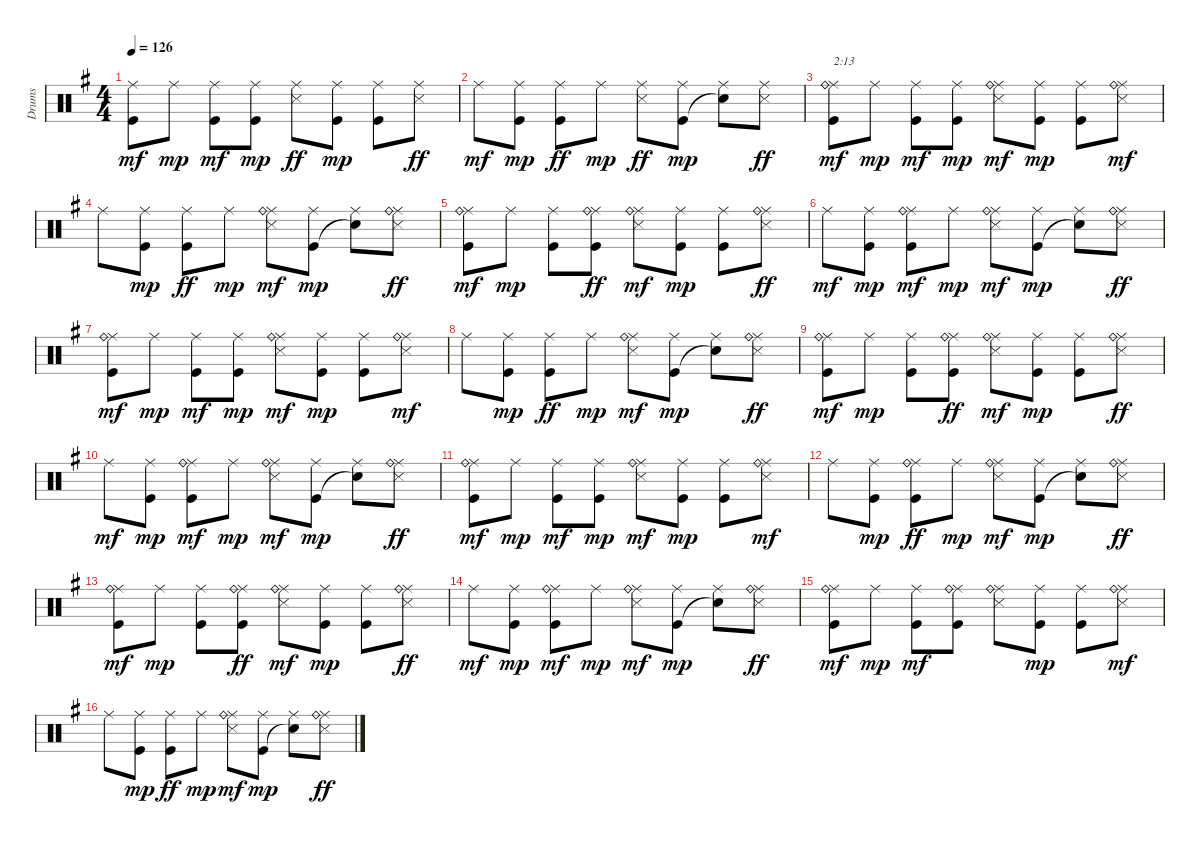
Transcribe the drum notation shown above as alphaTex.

\track ("Drums" "Drums") {instrument percussion}
\staff {score}
\articulation defaults
\ts (4 4)
\tempo 126
\clef neutral
\ks g
("Ride (middle)" "Kick (hit)").8{dy mf} "Ride (middle)".8{dy mp} ("Ride (middle)" "Kick (hit)").8{dy mf} ("Ride (middle)" "Kick (hit)").8{dy mp} ("Ride (middle)" "Snare (side stick) 3").8{dy ff} ("Ride (middle)" "Kick (hit)").8{dy mp} ("Ride (middle)" "Kick (hit)").8 ("Ride (middle)" "Snare (side stick) 3").8{dy ff} |
"Ride (middle)".8{dy mf} ("Ride (middle)" "Kick (hit)").8{dy mp} ("Ride (middle)" "Kick (hit)").8{dy ff} "Ride (middle)".8{dy mp} ("Ride (middle)" "Snare (side stick) 3").8{dy ff} ("Ride (middle)" "Kick (hit)").8{dy mp} ("Ride (middle)" "Snare (hit)"{t}).8 ("Ride (middle)" "Snare (side stick) 3").8{dy ff} |
("Ride (middle)" "Ride (bell)" "Kick (hit)").8{txt "2:13" dy mf} "Ride (middle)".8{dy mp} ("Ride (middle)" "Kick (hit)").8{dy mf} ("Ride (middle)" "Kick (hit)").8{dy mp} ("Ride (middle)" "Ride (bell)" "Snare (side stick) 3").8{dy mf} ("Ride (middle)" "Kick (hit)").8{dy mp} ("Ride (middle)" "Kick (hit)").8 ("Ride (middle)" "Ride (bell)" "Snare (side stick) 3").8{dy mf} |
"Ride (middle)".8 ("Ride (middle)" "Kick (hit)").8{dy mp} ("Ride (middle)" "Kick (hit)").8{dy ff} "Ride (middle)".8{dy mp} ("Ride (middle)" "Ride (bell)" "Snare (side stick) 3").8{dy mf} ("Ride (middle)" "Kick (hit)").8{dy mp} ("Ride (middle)" "Snare (hit)"{t}).8 ("Ride (middle)" "Ride (bell)" "Snare (side stick) 3").8{dy ff} |
("Ride (middle)" "Ride (bell)" "Kick (hit)").8{dy mf} "Ride (middle)".8{dy mp} ("Ride (middle)" "Kick (hit)").8 ("Ride (middle)" "Ride (bell)" "Kick (hit)").8{dy ff} ("Ride (middle)" "Ride (bell)" "Snare (side stick) 3").8{dy mf} ("Ride (middle)" "Kick (hit)").8{dy mp} ("Ride (middle)" "Kick (hit)").8 ("Ride (middle)" "Ride (bell)" "Snare (side stick) 3").8{dy ff} |
"Ride (middle)".8{dy mf} ("Ride (middle)" "Kick (hit)").8{dy mp} ("Ride (middle)" "Ride (bell)" "Kick (hit)").8{dy mf} "Ride (middle)".8{dy mp} ("Ride (middle)" "Ride (bell)" "Snare (side stick) 3").8{dy mf} ("Ride (middle)" "Kick (hit)").8{dy mp} ("Ride (middle)" "Snare (hit)"{t}).8 ("Ride (middle)" "Ride (bell)" "Snare (side stick) 3").8{dy ff} |
("Ride (middle)" "Ride (bell)" "Kick (hit)").8{dy mf} "Ride (middle)".8{dy mp} ("Ride (middle)" "Kick (hit)").8{dy mf} ("Ride (middle)" "Kick (hit)").8{dy mp} ("Ride (middle)" "Ride (bell)" "Snare (side stick) 3").8{dy mf} ("Ride (middle)" "Kick (hit)").8{dy mp} ("Ride (middle)" "Kick (hit)").8 ("Ride (middle)" "Ride (bell)" "Snare (side stick) 3").8{dy mf} |
"Ride (middle)".8 ("Ride (middle)" "Kick (hit)").8{dy mp} ("Ride (middle)" "Kick (hit)").8{dy ff} "Ride (middle)".8{dy mp} ("Ride (middle)" "Ride (bell)" "Snare (side stick) 3").8{dy mf} ("Ride (middle)" "Kick (hit)").8{dy mp} ("Ride (middle)" "Snare (hit)"{t}).8 ("Ride (middle)" "Ride (bell)" "Snare (side stick) 3").8{dy ff} |
("Ride (middle)" "Ride (bell)" "Kick (hit)").8{dy mf} "Ride (middle)".8{dy mp} ("Ride (middle)" "Kick (hit)").8 ("Ride (middle)" "Ride (bell)" "Kick (hit)").8{dy ff} ("Ride (middle)" "Ride (bell)" "Snare (side stick) 3").8{dy mf} ("Ride (middle)" "Kick (hit)").8{dy mp} ("Ride (middle)" "Kick (hit)").8 ("Ride (middle)" "Ride (bell)" "Snare (side stick) 3").8{dy ff} |
"Ride (middle)".8{dy mf} ("Ride (middle)" "Kick (hit)").8{dy mp} ("Ride (middle)" "Ride (bell)" "Kick (hit)").8{dy mf} "Ride (middle)".8{dy mp} ("Ride (middle)" "Ride (bell)" "Snare (side stick) 3").8{dy mf} ("Ride (middle)" "Kick (hit)").8{dy mp} ("Ride (middle)" "Snare (hit)"{t}).8 ("Ride (middle)" "Ride (bell)" "Snare (side stick) 3").8{dy ff} |
("Ride (middle)" "Ride (bell)" "Kick (hit)").8{dy mf} "Ride (middle)".8{dy mp} ("Ride (middle)" "Kick (hit)").8{dy mf} ("Ride (middle)" "Kick (hit)").8{dy mp} ("Ride (middle)" "Ride (bell)" "Snare (side stick) 3").8{dy mf} ("Ride (middle)" "Kick (hit)").8{dy mp} ("Ride (middle)" "Kick (hit)").8 ("Ride (middle)" "Ride (bell)" "Snare (side stick) 3").8{dy mf} |
"Ride (middle)".8 ("Ride (middle)" "Kick (hit)").8{dy mp} ("Ride (middle)" "Ride (bell)" "Kick (hit)").8{dy ff} "Ride (middle)".8{dy mp} ("Ride (middle)" "Ride (bell)" "Snare (side stick) 3").8{dy mf} ("Ride (middle)" "Kick (hit)").8{dy mp} ("Ride (middle)" "Snare (hit)"{t}).8 ("Ride (middle)" "Ride (bell)" "Snare (side stick) 3").8{dy ff} |
("Ride (middle)" "Ride (bell)" "Kick (hit)").8{dy mf} "Ride (middle)".8{dy mp} ("Ride (middle)" "Kick (hit)").8 ("Ride (middle)" "Ride (bell)" "Kick (hit)").8{dy ff} ("Ride (middle)" "Ride (bell)" "Snare (side stick) 3").8{dy mf} ("Ride (middle)" "Kick (hit)").8{dy mp} ("Ride (middle)" "Kick (hit)").8 ("Ride (middle)" "Ride (bell)" "Snare (side stick) 3").8{dy ff} |
"Ride (middle)".8{dy mf} ("Ride (middle)" "Kick (hit)").8{dy mp} ("Ride (middle)" "Ride (bell)" "Kick (hit)").8{dy mf} "Ride (middle)".8{dy mp} ("Ride (middle)" "Ride (bell)" "Snare (side stick) 3").8{dy mf} ("Ride (middle)" "Kick (hit)").8{dy mp} ("Ride (middle)" "Snare (hit)"{t}).8 ("Ride (middle)" "Ride (bell)" "Snare (side stick) 3").8{dy ff} |
("Ride (middle)" "Ride (bell)" "Kick (hit)").8{dy mf} "Ride (middle)".8{dy mp} ("Ride (middle)" "Kick (hit)").8{dy mf} ("Ride (middle)" "Ride (bell)" "Kick (hit)").8 ("Ride (middle)" "Ride (bell)" "Snare (side stick) 3").8 ("Ride (middle)" "Kick (hit)").8{dy mp} ("Ride (middle)" "Kick (hit)").8 ("Ride (middle)" "Ride (bell)" "Snare (side stick) 3").8{dy mf} |
"Ride (middle)".8 ("Ride (middle)" "Kick (hit)").8{dy mp} ("Ride (middle)" "Kick (hit)").8{dy ff} "Ride (middle)".8{dy mp} ("Ride (middle)" "Ride (bell)" "Snare (side stick) 3").8{dy mf} ("Ride (middle)" "Kick (hit)").8{dy mp} ("Ride (middle)" "Snare (hit)"{t}).8 ("Ride (middle)" "Ride (bell)" "Snare (side stick) 3").8{dy ff}
